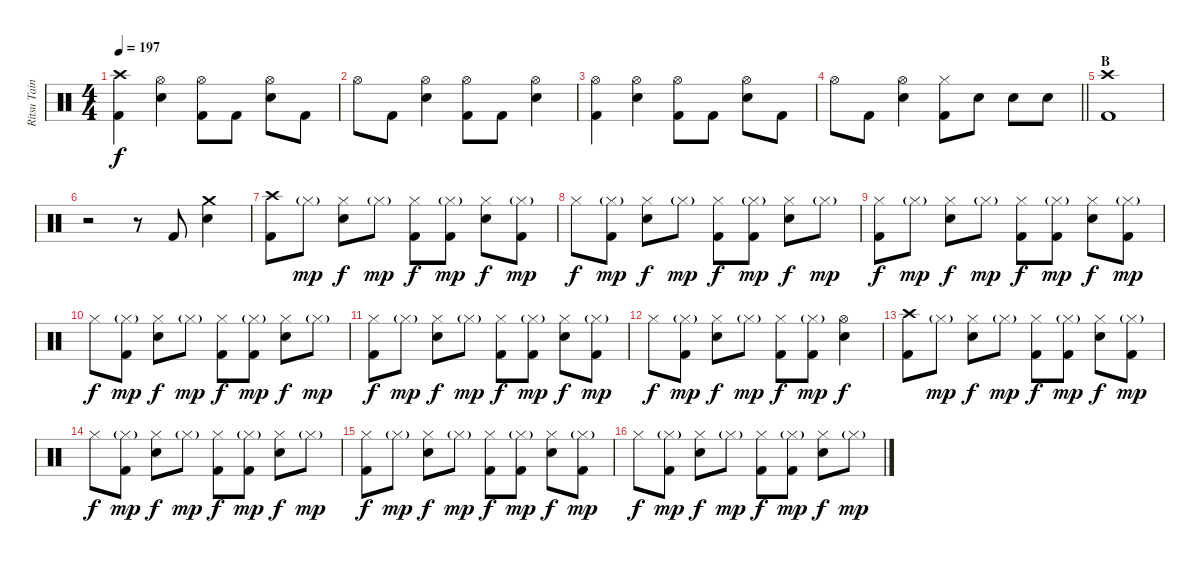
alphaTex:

\track ("Ritsu Tainaka" "Ritsu Tain") {instrument percussion}
\staff {score}
\articulation defaults
\ts (4 4)
\tempo 197
\clef neutral
\ks c
("Crash high (hit)" "Kick (hit) 2").4{dy f} ("Hi-Hat (open)" "Electric Snare (hit)").4 ("Hi-Hat (open)" "Kick (hit) 2").8 "Kick (hit) 2".8 ("Hi-Hat (open)" "Electric Snare (hit)").8 "Kick (hit) 2".8 |
"Hi-Hat (open)".8 "Kick (hit) 2".8 ("Hi-Hat (open)" "Electric Snare (hit)").4 ("Hi-Hat (open)" "Kick (hit) 2").8 "Kick (hit) 2".8 ("Hi-Hat (open)" "Electric Snare (hit)").4 |
("Hi-Hat (open)" "Kick (hit) 2").4 ("Hi-Hat (open)" "Electric Snare (hit)").4 ("Hi-Hat (open)" "Kick (hit) 2").8 "Kick (hit) 2".8 ("Hi-Hat (open)" "Electric Snare (hit)").8 "Kick (hit) 2".8 |
\barLineRight lightlight "Hi-Hat (open)".8 "Kick (hit) 2".8
("Hi-Hat (open)" "Electric Snare (hit)").4 ("Hi-Hat (closed)" "Kick (hit) 2").8 "Electric Snare (hit)".8 "Electric Snare (hit)".8 "Electric Snare (hit)".8 |
\section ("" "B")
("Crash high (hit)" "Kick (hit) 2").1 |
r.2 r.8 "Kick (hit) 2".8 ("Crash medium (hit)" "Electric Snare (hit)").4 |
("Crash high (hit)" "Kick (hit) 2").8 "Hi-Hat (closed)"{g}.8{dy mp} ("Hi-Hat (closed)" "Electric Snare (hit)").8{dy f} "Hi-Hat (closed)"{g}.8{dy mp} ("Hi-Hat (closed)" "Kick (hit) 2").8{dy f} ("Hi-Hat (closed)"{g} "Kick (hit) 2").8{dy mp} ("Hi-Hat (closed)" "Electric Snare (hit)").8{dy f} ("Hi-Hat (closed)"{g} "Kick (hit) 2").8{dy mp} |
"Hi-Hat (closed)".8{dy f} ("Hi-Hat (closed)"{g} "Kick (hit) 2").8{dy mp} ("Hi-Hat (closed)" "Electric Snare (hit)").8{dy f} "Hi-Hat (closed)"{g}.8{dy mp} ("Hi-Hat (closed)" "Kick (hit) 2").8{dy f} ("Hi-Hat (closed)"{g} "Kick (hit) 2").8{dy mp} ("Hi-Hat (closed)" "Electric Snare (hit)").8{dy f} "Hi-Hat (closed)"{g}.8{dy mp} |
("Hi-Hat (closed)" "Kick (hit) 2").8{dy f} "Hi-Hat (closed)"{g}.8{dy mp} ("Hi-Hat (closed)" "Electric Snare (hit)").8{dy f} "Hi-Hat (closed)"{g}.8{dy mp} ("Hi-Hat (closed)" "Kick (hit) 2").8{dy f} ("Hi-Hat (closed)"{g} "Kick (hit) 2").8{dy mp} ("Hi-Hat (closed)" "Electric Snare (hit)").8{dy f} ("Hi-Hat (closed)"{g} "Kick (hit) 2").8{dy mp} |
"Hi-Hat (closed)".8{dy f} ("Hi-Hat (closed)"{g} "Kick (hit) 2").8{dy mp} ("Hi-Hat (closed)" "Electric Snare (hit)").8{dy f} "Hi-Hat (closed)"{g}.8{dy mp} ("Hi-Hat (closed)" "Kick (hit) 2").8{dy f} ("Hi-Hat (closed)"{g} "Kick (hit) 2").8{dy mp} ("Hi-Hat (closed)" "Electric Snare (hit)").8{dy f} "Hi-Hat (closed)"{g}.8{dy mp} |
("Hi-Hat (closed)" "Kick (hit) 2").8{dy f} "Hi-Hat (closed)"{g}.8{dy mp} ("Hi-Hat (closed)" "Electric Snare (hit)").8{dy f} "Hi-Hat (closed)"{g}.8{dy mp} ("Hi-Hat (closed)" "Kick (hit) 2").8{dy f} ("Hi-Hat (closed)"{g} "Kick (hit) 2").8{dy mp} ("Hi-Hat (closed)" "Electric Snare (hit)").8{dy f} ("Hi-Hat (closed)"{g} "Kick (hit) 2").8{dy mp} |
"Hi-Hat (closed)".8{dy f} ("Hi-Hat (closed)"{g} "Kick (hit) 2").8{dy mp} ("Hi-Hat (closed)" "Electric Snare (hit)").8{dy f} "Hi-Hat (closed)"{g}.8{dy mp} ("Hi-Hat (closed)" "Kick (hit) 2").8{dy f} ("Hi-Hat (closed)"{g} "Kick (hit) 2").8{dy mp} ("Hi-Hat (open)" "Electric Snare (hit)").4{dy f} |
("Crash high (hit)" "Kick (hit) 2").8 "Hi-Hat (closed)"{g}.8{dy mp} ("Hi-Hat (closed)" "Electric Snare (hit)").8{dy f} "Hi-Hat (closed)"{g}.8{dy mp} ("Hi-Hat (closed)" "Kick (hit) 2").8{dy f} ("Hi-Hat (closed)"{g} "Kick (hit) 2").8{dy mp} ("Hi-Hat (closed)" "Electric Snare (hit)").8{dy f} ("Hi-Hat (closed)"{g} "Kick (hit) 2").8{dy mp} |
"Hi-Hat (closed)".8{dy f} ("Hi-Hat (closed)"{g} "Kick (hit) 2").8{dy mp} ("Hi-Hat (closed)" "Electric Snare (hit)").8{dy f} "Hi-Hat (closed)"{g}.8{dy mp} ("Hi-Hat (closed)" "Kick (hit) 2").8{dy f} ("Hi-Hat (closed)"{g} "Kick (hit) 2").8{dy mp} ("Hi-Hat (closed)" "Electric Snare (hit)").8{dy f} "Hi-Hat (closed)"{g}.8{dy mp} |
("Hi-Hat (closed)" "Kick (hit) 2").8{dy f} "Hi-Hat (closed)"{g}.8{dy mp} ("Hi-Hat (closed)" "Electric Snare (hit)").8{dy f} "Hi-Hat (closed)"{g}.8{dy mp} ("Hi-Hat (closed)" "Kick (hit) 2").8{dy f} ("Hi-Hat (closed)"{g} "Kick (hit) 2").8{dy mp} ("Hi-Hat (closed)" "Electric Snare (hit)").8{dy f} ("Hi-Hat (closed)"{g} "Kick (hit) 2").8{dy mp} |
"Hi-Hat (closed)".8{dy f} ("Hi-Hat (closed)"{g} "Kick (hit) 2").8{dy mp} ("Hi-Hat (closed)" "Electric Snare (hit)").8{dy f} "Hi-Hat (closed)"{g}.8{dy mp} ("Hi-Hat (closed)" "Kick (hit) 2").8{dy f} ("Hi-Hat (closed)"{g} "Kick (hit) 2").8{dy mp} ("Hi-Hat (closed)" "Electric Snare (hit)").8{dy f} "Hi-Hat (closed)"{g}.8{dy mp}
